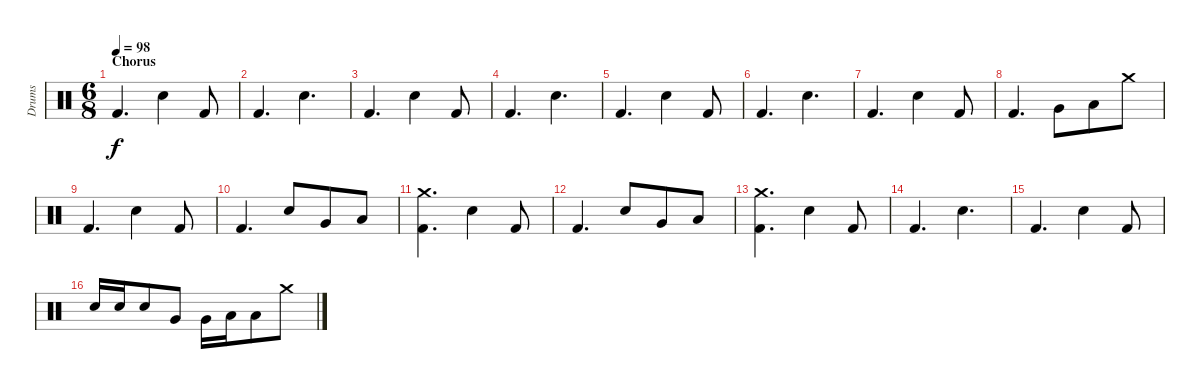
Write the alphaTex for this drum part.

\track ("Drums" "Drums") {instrument percussion}
\staff {score}
\articulation defaults
\ts (6 8)
\section ("" "Chorus")
\tempo 98
\clef neutral
\ks c "Kick (hit) 2".4{d dy f} "Snare (hit) 2".4 "Kick (hit) 2".8
|
"Kick (hit) 2".4{d} "Snare (hit) 2".4{d} |
"Kick (hit) 2".4{d} "Snare (hit) 2".4 "Kick (hit) 2".8 |
"Kick (hit) 2".4{d} "Snare (hit) 2".4{d} |
"Kick (hit) 2".4{d} "Snare (hit) 2".4 "Kick (hit) 2".8 |
"Kick (hit) 2".4{d} "Snare (hit) 2".4{d} |
"Kick (hit) 2".4{d} "Snare (hit) 2".4 "Kick (hit) 2".8 |
"Kick (hit) 2".4{d} "Very Low Tom (hit)".8 "Low Tom (hit)".8 "Crash medium (hit)".8 |
"Kick (hit) 2".4{d} "Snare (hit) 2".4 "Kick (hit) 2".8 |
"Kick (hit) 2".4{d} "Snare (hit) 2".8 "Very Low Tom (hit)".8 "Low Tom (hit)".8 |
("Kick (hit) 2" "Crash medium (hit)").4{d} "Snare (hit) 2".4 "Kick (hit) 2".8 |
"Kick (hit) 2".4{d} "Snare (hit) 2".8 "Very Low Tom (hit)".8 "Low Tom (hit)".8 |
("Kick (hit) 2" "Crash medium (hit)").4{d} "Snare (hit) 2".4 "Kick (hit) 2".8 |
"Kick (hit) 2".4{d} "Snare (hit) 2".4{d} |
"Kick (hit) 2".4{d} "Snare (hit) 2".4 "Kick (hit) 2".8 |
"Snare (hit) 2".16 "Snare (hit) 2".16 "Snare (hit) 2".8 "Very Low Tom (hit)".8 "Very Low Tom (hit)".16 "Low Tom (hit)".16 "Low Tom (hit)".8 "Crash medium (hit)".8
